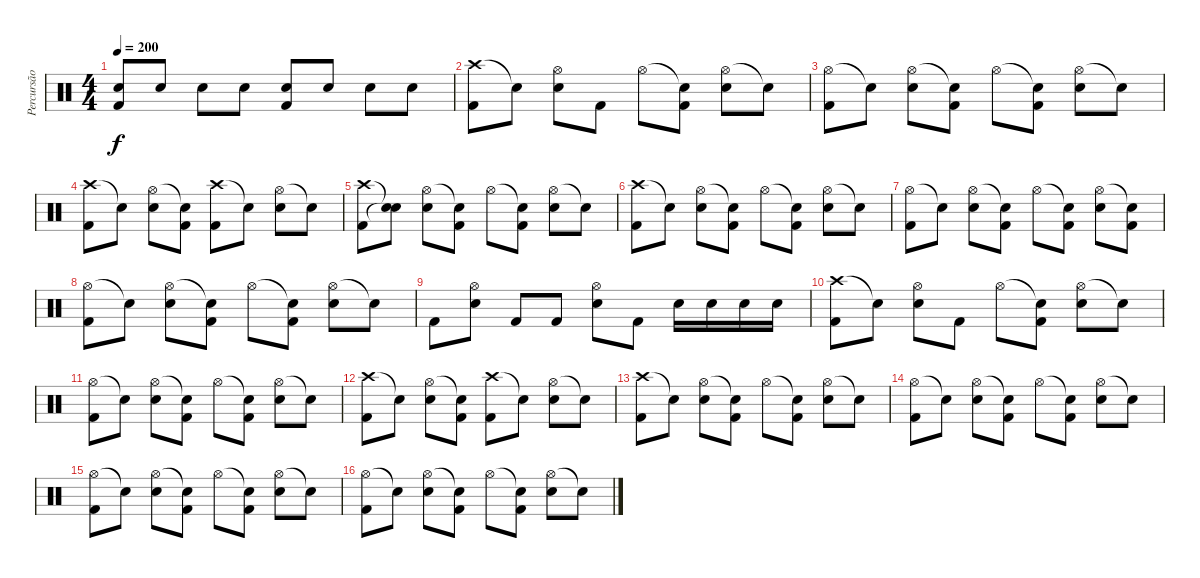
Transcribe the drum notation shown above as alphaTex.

\track ("Percursão" "Percursão") {instrument percussion}
\staff {score}
\articulation defaults
\ts (4 4)
\tempo 200
\clef neutral
\ks c
("Electric Snare (hit)" "Kick (hit) 2").8{dy f} "Electric Snare (hit)".8 "Electric Snare (hit)".8 "Electric Snare (hit)".8 ("Electric Snare (hit)" "Kick (hit) 2").8 "Electric Snare (hit)".8 "Electric Snare (hit)".8 "Electric Snare (hit)".8 |
("Crash high (hit)" "Kick (hit) 2").8 "Snare (hit)"{t}.8 ("Hi-Hat (open)" "Electric Snare (hit)").8 "Kick (hit) 2".8 "Hi-Hat (open)".8 ("Snare (hit)"{t} "Kick (hit) 2").8 ("Hi-Hat (open)" "Electric Snare (hit)").8 "Snare (hit)"{t}.8 |
("Hi-Hat (open)" "Kick (hit) 2").8 "Snare (hit)"{t}.8 ("Hi-Hat (open)" "Electric Snare (hit)").8 ("Snare (hit)"{t} "Kick (hit) 2").8 "Hi-Hat (open)".8 ("Snare (hit)"{t} "Kick (hit) 2").8 ("Hi-Hat (open)" "Electric Snare (hit)").8 "Snare (hit)"{t}.8 |
("Crash high (hit)" "Kick (hit) 2").8 "Snare (hit)"{t}.8 ("Hi-Hat (open)" "Electric Snare (hit)").8 ("Snare (hit)"{t} "Kick (hit) 2").8 ("Crash high (hit)" "Kick (hit) 2").8 "Snare (hit)"{t}.8 ("Hi-Hat (open)" "Electric Snare (hit)").8 "Snare (hit)"{t}.8 |
("Crash high (hit)" "Kick (hit) 2").8 ("Snare (hit)"{t} "Snare (hit)"{t}).8 ("Hi-Hat (open)" "Electric Snare (hit)").8 ("Snare (hit)"{t} "Kick (hit) 2").8 "Hi-Hat (open)".8 ("Snare (hit)"{t} "Kick (hit) 2").8 ("Hi-Hat (open)" "Electric Snare (hit)").8 "Snare (hit)"{t}.8 |
("Crash high (hit)" "Kick (hit) 2").8 "Snare (hit)"{t}.8 ("Hi-Hat (open)" "Electric Snare (hit)").8 ("Snare (hit)"{t} "Kick (hit) 2").8 "Hi-Hat (open)".8 ("Snare (hit)"{t} "Kick (hit) 2").8 ("Hi-Hat (open)" "Electric Snare (hit)").8 "Snare (hit)"{t}.8 |
("Hi-Hat (open)" "Kick (hit) 2").8 "Snare (hit)"{t}.8 ("Hi-Hat (open)" "Electric Snare (hit)").8 ("Snare (hit)"{t} "Kick (hit) 2").8 "Hi-Hat (open)".8 ("Snare (hit)"{t} "Kick (hit) 2").8 ("Hi-Hat (open)" "Electric Snare (hit)").8 ("Snare (hit)"{t} "Kick (hit) 2").8 |
("Hi-Hat (open)" "Kick (hit) 2").8 "Snare (hit)"{t}.8 ("Hi-Hat (open)" "Electric Snare (hit)").8 ("Snare (hit)"{t} "Kick (hit) 2").8 "Hi-Hat (open)".8 ("Snare (hit)"{t} "Kick (hit) 2").8 ("Hi-Hat (open)" "Electric Snare (hit)").8 "Snare (hit)"{t}.8 |
"Kick (hit) 2".8 ("Hi-Hat (open)" "Electric Snare (hit)").8 "Kick (hit) 2".8 "Kick (hit) 2".8 ("Hi-Hat (open)" "Electric Snare (hit)").8 "Kick (hit) 2".8 "Electric Snare (hit)".16 "Electric Snare (hit)".16 "Electric Snare (hit)".16 "Electric Snare (hit)".16 |
("Crash high (hit)" "Kick (hit) 2").8 "Snare (hit)"{t}.8 ("Hi-Hat (open)" "Electric Snare (hit)").8 "Kick (hit) 2".8 "Hi-Hat (open)".8 ("Snare (hit)"{t} "Kick (hit) 2").8 ("Hi-Hat (open)" "Electric Snare (hit)").8 "Snare (hit)"{t}.8 |
("Hi-Hat (open)" "Kick (hit) 2").8 "Snare (hit)"{t}.8 ("Hi-Hat (open)" "Electric Snare (hit)").8 ("Snare (hit)"{t} "Kick (hit) 2").8 "Hi-Hat (open)".8 ("Snare (hit)"{t} "Kick (hit) 2").8 ("Hi-Hat (open)" "Electric Snare (hit)").8 "Snare (hit)"{t}.8 |
("Crash high (hit)" "Kick (hit) 2").8 "Snare (hit)"{t}.8 ("Hi-Hat (open)" "Electric Snare (hit)").8 ("Snare (hit)"{t} "Kick (hit) 2").8 ("Crash high (hit)" "Kick (hit) 2").8 "Snare (hit)"{t}.8 ("Hi-Hat (open)" "Electric Snare (hit)").8 "Snare (hit)"{t}.8 |
("Crash high (hit)" "Kick (hit) 2").8 "Snare (hit)"{t}.8 ("Hi-Hat (open)" "Electric Snare (hit)").8 ("Snare (hit)"{t} "Kick (hit) 2").8 "Hi-Hat (open)".8 ("Snare (hit)"{t} "Kick (hit) 2").8 ("Hi-Hat (open)" "Electric Snare (hit)").8 "Snare (hit)"{t}.8 |
("Hi-Hat (open)" "Kick (hit) 2").8 "Snare (hit)"{t}.8 ("Hi-Hat (open)" "Electric Snare (hit)").8 ("Snare (hit)"{t} "Kick (hit) 2").8 "Hi-Hat (open)".8 ("Snare (hit)"{t} "Kick (hit) 2").8 ("Hi-Hat (open)" "Electric Snare (hit)").8 "Snare (hit)"{t}.8 |
("Hi-Hat (open)" "Kick (hit) 2").8 "Snare (hit)"{t}.8 ("Hi-Hat (open)" "Electric Snare (hit)").8 ("Snare (hit)"{t} "Kick (hit) 2").8 "Hi-Hat (open)".8 ("Snare (hit)"{t} "Kick (hit) 2").8 ("Hi-Hat (open)" "Electric Snare (hit)").8 "Snare (hit)"{t}.8 |
("Hi-Hat (open)" "Kick (hit) 2").8 "Snare (hit)"{t}.8 ("Hi-Hat (open)" "Electric Snare (hit)").8 ("Snare (hit)"{t} "Kick (hit) 2").8 "Hi-Hat (open)".8 ("Snare (hit)"{t} "Kick (hit) 2").8 ("Hi-Hat (open)" "Electric Snare (hit)").8 "Snare (hit)"{t}.8
